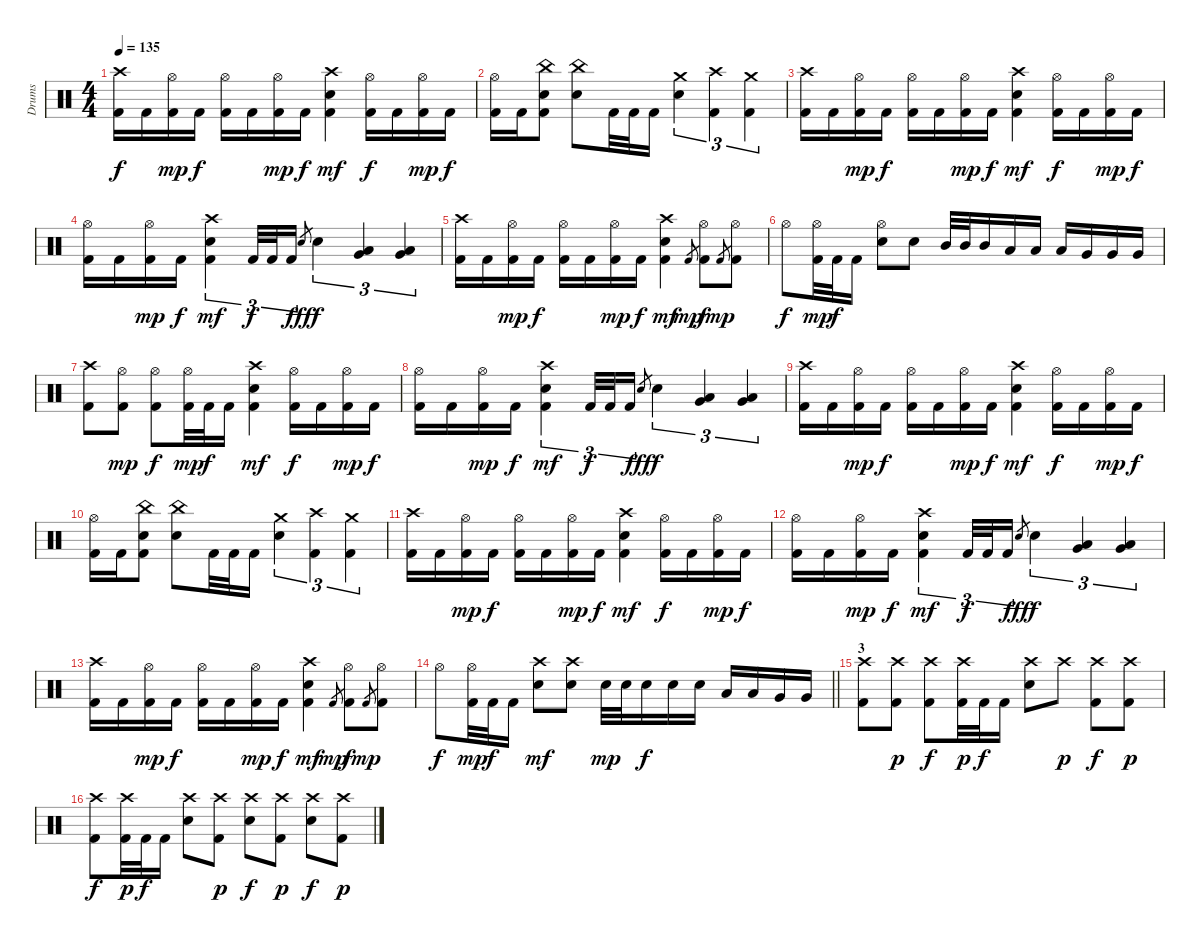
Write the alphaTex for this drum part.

\track ("Drums" "Drums") {instrument percussion}
\staff {score}
\articulation defaults
\ts (4 4)
\tempo 135
\clef neutral
\ks c
("Crash high (hit)" "Kick (hit) 2").16{dy f} "Kick (hit) 2".16 ("Hi-Hat (open)" "Kick (hit) 2").16{dy mp} "Kick (hit) 2".16{dy f} ("Hi-Hat (open)" "Kick (hit) 2").16 "Kick (hit) 2".16 ("Hi-Hat (open)" "Kick (hit) 2").16{dy mp} "Kick (hit) 2".16{dy f} ("Crash high (hit)" "Electric Snare (hit)" "Kick (hit) 2").4{dy mf} ("Hi-Hat (open)" "Kick (hit) 2").16{dy f} "Kick (hit) 2".16 ("Hi-Hat (open)" "Kick (hit) 2").16{dy mp} "Kick (hit) 2".16{dy f} |
("Hi-Hat (open)" "Kick (hit) 2").16 "Kick (hit) 2".16 ("China (hit)" "Electric Snare (hit)" "Kick (hit) 2").8 ("China (hit)" "Electric Snare (hit)").8 "Kick (hit) 2".32 "Kick (hit) 2".32 "Kick (hit) 2".16 ("Crash medium (hit)" "Electric Snare (hit)").4{tu (3 2)} ("Crash high (hit)" "Kick (hit) 2").4{tu (3 2)} ("Crash medium (hit)" "Kick (hit) 2").4{tu (3 2)} |
("Crash high (hit)" "Kick (hit) 2").16 "Kick (hit) 2".16 ("Hi-Hat (open)" "Kick (hit) 2").16{dy mp} "Kick (hit) 2".16{dy f} ("Hi-Hat (open)" "Kick (hit) 2").16 "Kick (hit) 2".16 ("Hi-Hat (open)" "Kick (hit) 2").16{dy mp} "Kick (hit) 2".16{dy f} ("Crash high (hit)" "Electric Snare (hit)" "Kick (hit) 2").4{dy mf} ("Hi-Hat (open)" "Kick (hit) 2").16{dy f} "Kick (hit) 2".16 ("Hi-Hat (open)" "Kick (hit) 2").16{dy mp} "Kick (hit) 2".16{dy f} |
("Hi-Hat (open)" "Kick (hit) 2").16 "Kick (hit) 2".16 ("Hi-Hat (open)" "Kick (hit) 2").16{dy mp} "Kick (hit) 2".16{dy f} ("Crash high (hit)" "Electric Snare (hit)" "Kick (hit) 2").4{tu (3 2) dy mf} "Kick (hit) 2".32{tu (3 2) dy f} "Kick (hit) 2".32{tu (3 2)} "Kick (hit) 2".16{tu (3 2)} "Electric Snare (hit)".8{gr dy fff} "Electric Snare (hit)".4{tu (3 2) dy f} ("Low Tom (hit)" "Very Low Tom (hit)").4{tu (3 2)} ("Very Low Tom (hit)" "Low Floor Tom (hit)").4{tu (3 2)} |
("Crash high (hit)" "Kick (hit) 2").16 "Kick (hit) 2".16 ("Hi-Hat (open)" "Kick (hit) 2").16{dy mp} "Kick (hit) 2".16{dy f} ("Hi-Hat (open)" "Kick (hit) 2").16 "Kick (hit) 2".16 ("Hi-Hat (open)" "Kick (hit) 2").16{dy mp} "Kick (hit) 2".16{dy f} ("Crash high (hit)" "Electric Snare (hit)" "Kick (hit) 2").4{dy mf} "Kick (hit) 2".8{gr dy mp} ("Hi-Hat (open)" "Kick (hit) 2").8{dy f} "Kick (hit) 2".8{gr dy mp} ("Hi-Hat (open)" "Kick (hit) 2").8 |
"Hi-Hat (open)".8{dy f} ("Hi-Hat (open)" "Kick (hit) 2").32{dy mp} "Kick (hit) 2".32{dy f} "Kick (hit) 2".16 ("Hi-Hat (open)" "Electric Snare (hit)").8 "Electric Snare (hit)".8 "Mid Tom (hit)".32 "Mid Tom (hit)".32 "Mid Tom (hit)".16 "Low Tom (hit)".16 "Low Tom (hit)".16 "Low Tom (hit)".16 "Very Low Tom (hit)".16 "Very Low Tom (hit)".16 "Very Low Tom (hit)".16 |
("Crash high (hit)" "Kick (hit) 2").8 ("Hi-Hat (open)" "Kick (hit) 2").8{dy mp} ("Hi-Hat (open)" "Kick (hit) 2").8{dy f} ("Hi-Hat (open)" "Kick (hit) 2").32{dy mp} "Kick (hit) 2".32{dy f} "Kick (hit) 2".16 ("Crash high (hit)" "Electric Snare (hit)" "Kick (hit) 2").4{dy mf} ("Hi-Hat (open)" "Kick (hit) 2").16{dy f} "Kick (hit) 2".16 ("Hi-Hat (open)" "Kick (hit) 2").16{dy mp} "Kick (hit) 2".16{dy f} |
("Hi-Hat (open)" "Kick (hit) 2").16 "Kick (hit) 2".16 ("Hi-Hat (open)" "Kick (hit) 2").16{dy mp} "Kick (hit) 2".16{dy f} ("Crash high (hit)" "Electric Snare (hit)" "Kick (hit) 2").4{tu (3 2) dy mf} "Kick (hit) 2".32{tu (3 2) dy f} "Kick (hit) 2".32{tu (3 2)} "Kick (hit) 2".16{tu (3 2)} "Electric Snare (hit)".8{gr dy fff} "Electric Snare (hit)".4{tu (3 2) dy f} ("Low Tom (hit)" "Very Low Tom (hit)").4{tu (3 2)} ("Very Low Tom (hit)" "Low Floor Tom (hit)").4{tu (3 2)} |
("Crash high (hit)" "Kick (hit) 2").16 "Kick (hit) 2".16 ("Hi-Hat (open)" "Kick (hit) 2").16{dy mp} "Kick (hit) 2".16{dy f} ("Hi-Hat (open)" "Kick (hit) 2").16 "Kick (hit) 2".16 ("Hi-Hat (open)" "Kick (hit) 2").16{dy mp} "Kick (hit) 2".16{dy f} ("Crash high (hit)" "Electric Snare (hit)" "Kick (hit) 2").4{dy mf} ("Hi-Hat (open)" "Kick (hit) 2").16{dy f} "Kick (hit) 2".16 ("Hi-Hat (open)" "Kick (hit) 2").16{dy mp} "Kick (hit) 2".16{dy f} |
("Hi-Hat (open)" "Kick (hit) 2").16 "Kick (hit) 2".16 ("China (hit)" "Electric Snare (hit)" "Kick (hit) 2").8 ("China (hit)" "Electric Snare (hit)").8 "Kick (hit) 2".32 "Kick (hit) 2".32 "Kick (hit) 2".16 ("Crash medium (hit)" "Electric Snare (hit)").4{tu (3 2)} ("Crash high (hit)" "Kick (hit) 2").4{tu (3 2)} ("Crash medium (hit)" "Kick (hit) 2").4{tu (3 2)} |
("Crash high (hit)" "Kick (hit) 2").16 "Kick (hit) 2".16 ("Hi-Hat (open)" "Kick (hit) 2").16{dy mp} "Kick (hit) 2".16{dy f} ("Hi-Hat (open)" "Kick (hit) 2").16 "Kick (hit) 2".16 ("Hi-Hat (open)" "Kick (hit) 2").16{dy mp} "Kick (hit) 2".16{dy f} ("Crash high (hit)" "Electric Snare (hit)" "Kick (hit) 2").4{dy mf} ("Hi-Hat (open)" "Kick (hit) 2").16{dy f} "Kick (hit) 2".16 ("Hi-Hat (open)" "Kick (hit) 2").16{dy mp} "Kick (hit) 2".16{dy f} |
("Hi-Hat (open)" "Kick (hit) 2").16 "Kick (hit) 2".16 ("Hi-Hat (open)" "Kick (hit) 2").16{dy mp} "Kick (hit) 2".16{dy f} ("Crash high (hit)" "Electric Snare (hit)" "Kick (hit) 2").4{tu (3 2) dy mf} "Kick (hit) 2".32{tu (3 2) dy f} "Kick (hit) 2".32{tu (3 2)} "Kick (hit) 2".16{tu (3 2)} "Electric Snare (hit)".8{gr dy fff} "Electric Snare (hit)".4{tu (3 2) dy f} ("Low Tom (hit)" "Very Low Tom (hit)").4{tu (3 2)} ("Very Low Tom (hit)" "Low Floor Tom (hit)").4{tu (3 2)} |
("Crash high (hit)" "Kick (hit) 2").16 "Kick (hit) 2".16 ("Hi-Hat (open)" "Kick (hit) 2").16{dy mp} "Kick (hit) 2".16{dy f} ("Hi-Hat (open)" "Kick (hit) 2").16 "Kick (hit) 2".16 ("Hi-Hat (open)" "Kick (hit) 2").16{dy mp} "Kick (hit) 2".16{dy f} ("Crash high (hit)" "Electric Snare (hit)" "Kick (hit) 2").4{dy mf} "Kick (hit) 2".8{gr dy mp} ("Hi-Hat (open)" "Kick (hit) 2").8{dy f} "Kick (hit) 2".8{gr dy mp} ("Hi-Hat (open)" "Kick (hit) 2").8 |
\barLineRight lightlight "Hi-Hat (open)".8{dy f}
("Hi-Hat (open)" "Kick (hit) 2").32{dy mp} "Kick (hit) 2".32{dy f} "Kick (hit) 2".16 ("Crash high (hit)" "Electric Snare (hit)").8{dy mf} ("Crash high (hit)" "Electric Snare (hit)").8 "Electric Snare (hit)".32{dy mp} "Electric Snare (hit)".32 "Electric Snare (hit)".16{dy f} "Electric Snare (hit)".16 "Electric Snare (hit)".16 "Low Tom (hit)".16 "Low Tom (hit)".16 "Very Low Tom (hit)".16 "Very Low Tom (hit)".16 |
\section ("" "3")
("Crash high (hit)" "Kick (hit) 2").8 ("Crash high (hit)" "Kick (hit) 2").8{dy p} ("Crash high (hit)" "Kick (hit) 2").8{dy f} ("Crash high (hit)" "Kick (hit) 2").32{dy p} "Kick (hit) 2".32{dy f} "Kick (hit) 2".16 ("Crash high (hit)" "Electric Snare (hit)").8 "Crash high (hit)".8{dy p} ("Crash high (hit)" "Kick (hit) 2").8{dy f} ("Crash high (hit)" "Kick (hit) 2").8{dy p} |
("Crash high (hit)" "Kick (hit) 2").8{dy f} ("Crash high (hit)" "Kick (hit) 2").32{dy p} "Kick (hit) 2".32{dy f} "Kick (hit) 2".16 ("Crash high (hit)" "Electric Snare (hit)").8 ("Crash high (hit)" "Kick (hit) 2").8{dy p} ("Crash high (hit)" "Electric Snare (hit)").8{dy f} ("Crash high (hit)" "Kick (hit) 2").8{dy p} ("Crash high (hit)" "Electric Snare (hit)").8{dy f} ("Crash high (hit)" "Kick (hit) 2").8{dy p}
